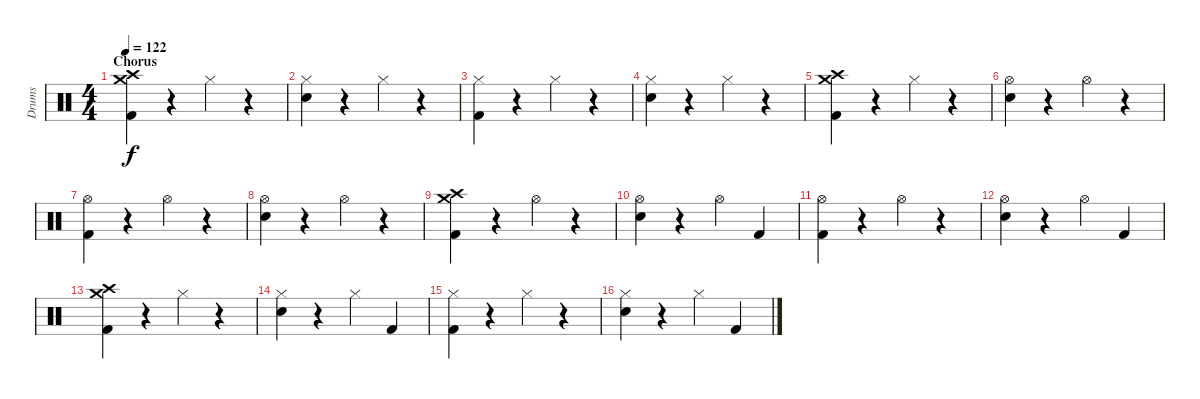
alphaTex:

\track ("Drums" "Drums") {instrument percussion}
\staff {score}
\articulation defaults
\ts (4 4)
\section ("" "Chorus")
\tempo 122
\clef neutral
\ks c
("Crash high (hit)" "Crash medium (hit)" "Kick (hit) 2").4{dy f} r.4 "Hi-Hat (closed)".4 r.4 |
("Hi-Hat (closed)" "Snare (hit) 2").4 r.4 "Hi-Hat (closed)".4 r.4 |
("Hi-Hat (closed)" "Kick (hit) 2").4 r.4 "Hi-Hat (closed)".4 r.4 |
("Hi-Hat (closed)" "Snare (hit) 2").4 r.4 "Hi-Hat (closed)".4 r.4 |
("Crash high (hit)" "Crash medium (hit)" "Kick (hit) 2").4 r.4 "Hi-Hat (closed)".4 r.4 |
("Hi-Hat (open)" "Snare (hit) 2").4 r.4 "Hi-Hat (open)".4 r.4 |
("Hi-Hat (open)" "Kick (hit) 2").4 r.4 "Hi-Hat (open)".4 r.4 |
("Hi-Hat (open)" "Snare (hit) 2").4 r.4 "Hi-Hat (open)".4 r.4 |
("Crash high (hit)" "Crash medium (hit)" "Kick (hit) 2").4 r.4 "Hi-Hat (open)".4 r.4 |
("Hi-Hat (open)" "Snare (hit) 2").4 r.4 "Hi-Hat (open)".4 "Kick (hit) 2".4 |
("Hi-Hat (open)" "Kick (hit) 2").4 r.4 "Hi-Hat (open)".4 r.4 |
("Hi-Hat (open)" "Snare (hit) 2").4 r.4 "Hi-Hat (open)".4 "Kick (hit) 2".4 |
("Crash high (hit)" "Crash medium (hit)" "Kick (hit) 2").4 r.4 "Hi-Hat (closed)".4 r.4 |
("Hi-Hat (closed)" "Snare (hit) 2").4 r.4 "Hi-Hat (closed)".4 "Kick (hit) 2".4 |
("Hi-Hat (closed)" "Kick (hit) 2").4 r.4 "Hi-Hat (closed)".4 r.4 |
("Hi-Hat (closed)" "Snare (hit) 2").4 r.4 "Hi-Hat (closed)".4 "Kick (hit) 2".4
